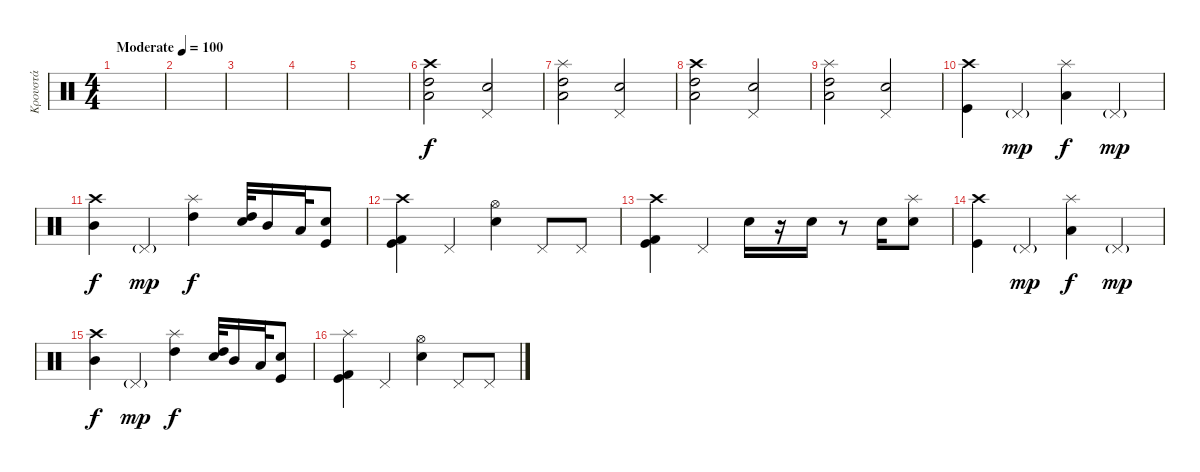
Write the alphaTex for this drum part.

\track ("Κρουστά" "Κρουστά") {instrument percussion}
\staff {score}
\articulation defaults
\ts (4 4)
\tempo (100 "Moderate")
\clef neutral
\ks c
|
|
|
|
|
("Low Tom (hit)" "High Tom (hit)" "Crash high (hit)").2 ("Snare (hit) 2" "Pedal Hi-Hat (hit)").2 |
("Low Tom (hit)" "High Tom (hit)" "Splash (hit)").2 ("Snare (hit) 2" "Pedal Hi-Hat (hit)").2 |
("Low Tom (hit)" "High Tom (hit)" "Crash high (hit)").2 ("Snare (hit) 2" "Pedal Hi-Hat (hit)").2 |
("Low Tom (hit)" "High Tom (hit)" "Splash (hit)").2 ("Snare (hit) 2" "Pedal Hi-Hat (hit)").2 |
("Kick (hit)" "Crash high (hit)").4 "Pedal Hi-Hat (hit)"{g}.4{dy mp} ("Low Tom (hit)" "Splash (hit)").4{dy f} "Pedal Hi-Hat (hit)"{g}.4{dy mp} |
("Mid Tom (hit)" "Crash high (hit)").4{dy f} "Pedal Hi-Hat (hit)"{g}.4{dy mp} ("High Tom (hit)" "Splash (hit)").4{dy f} ("High Tom (hit)" "Snare (hit) 2").32 "Mid Tom (hit)".16 "Low Tom (hit)".32 ("Kick (hit)" "Snare (hit) 2").8 |
("Kick (hit) 2" "Kick (hit)" "Crash high (hit)").4 "Pedal Hi-Hat (hit)".4 ("Snare (hit) 2" "Hi-Hat (open)").4 "Pedal Hi-Hat (hit)".8 "Pedal Hi-Hat (hit)".8 |
("Kick (hit) 2" "Kick (hit)" "Crash high (hit)").4 "Pedal Hi-Hat (hit)".4 "Snare (hit) 2".16 r.16 "Snare (hit) 2".16 r.8 "Snare (hit) 2".16 ("Snare (hit) 2" "Splash (hit)").8 |
("Kick (hit)" "Crash high (hit)").4 "Pedal Hi-Hat (hit)"{g}.4{dy mp} ("Low Tom (hit)" "Splash (hit)").4{dy f} "Pedal Hi-Hat (hit)"{g}.4{dy mp} |
("Mid Tom (hit)" "Crash high (hit)").4{dy f} "Pedal Hi-Hat (hit)"{g}.4{dy mp} ("High Tom (hit)" "Splash (hit)").4{dy f} ("High Tom (hit)" "Snare (hit) 2").32 "Mid Tom (hit)".16 "Low Tom (hit)".32 ("Kick (hit)" "Snare (hit) 2").8 |
("Kick (hit) 2" "Kick (hit)" "Splash (hit)").4 "Pedal Hi-Hat (hit)".4 ("Snare (hit) 2" "Hi-Hat (open)").4 "Pedal Hi-Hat (hit)".8 "Pedal Hi-Hat (hit)".8
